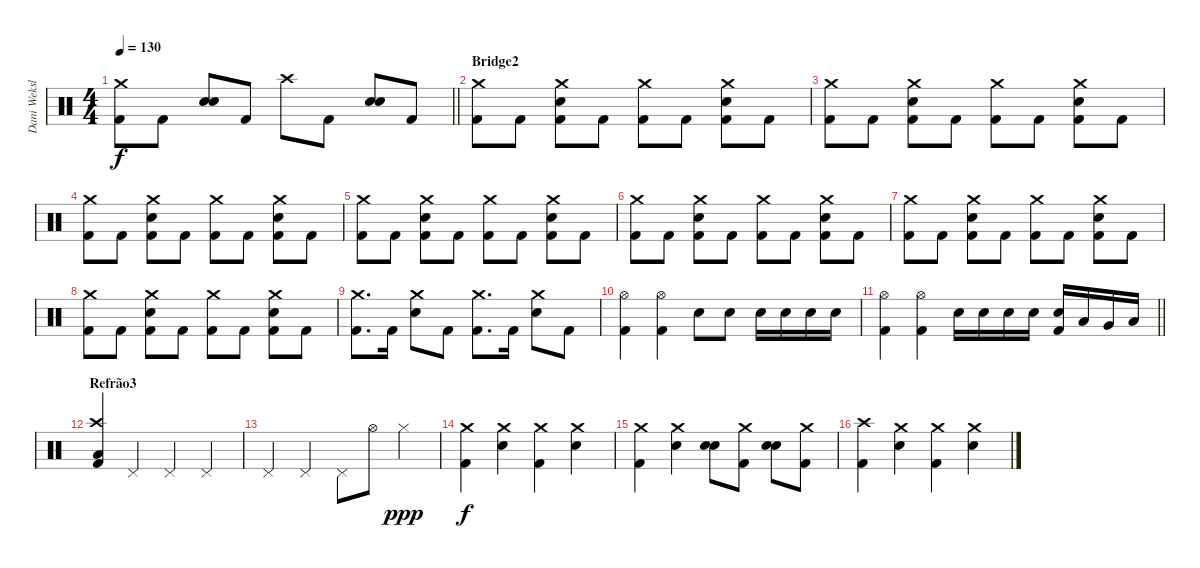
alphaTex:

\track ("Dani Weksler(Bateria)" "Dani Weksl") {instrument percussion}
\staff {score}
\articulation defaults
\ts (4 4)
\tempo 130
\clef neutral
\barLineRight lightlight
\ks c
("Crash medium (hit)" "Kick (hit) 2").8{dy f} "Kick (hit) 2".8 ("Electric Snare (hit)" "Electric Snare (hit)").8 "Kick (hit) 2".8 "Crash high (hit)".8 "Kick (hit) 2".8 ("Electric Snare (hit)" "Electric Snare (hit)").8 "Kick (hit) 2".8 |
\section ("" "Bridge2")
("Crash medium (hit)" "Kick (hit) 2").8 "Kick (hit) 2".8 ("Crash medium (hit)" "Electric Snare (hit)" "Kick (hit) 2").8 "Kick (hit) 2".8 ("Crash medium (hit)" "Kick (hit) 2").8 "Kick (hit) 2".8 ("Crash medium (hit)" "Electric Snare (hit)" "Kick (hit) 2").8 "Kick (hit) 2".8 |
("Crash medium (hit)" "Kick (hit) 2").8 "Kick (hit) 2".8 ("Crash medium (hit)" "Electric Snare (hit)" "Kick (hit) 2").8 "Kick (hit) 2".8 ("Crash medium (hit)" "Kick (hit) 2").8 "Kick (hit) 2".8 ("Crash medium (hit)" "Electric Snare (hit)" "Kick (hit) 2").8 "Kick (hit) 2".8 |
("Crash medium (hit)" "Kick (hit) 2").8 "Kick (hit) 2".8 ("Crash medium (hit)" "Electric Snare (hit)" "Kick (hit) 2").8 "Kick (hit) 2".8 ("Crash medium (hit)" "Kick (hit) 2").8 "Kick (hit) 2".8 ("Crash medium (hit)" "Electric Snare (hit)" "Kick (hit) 2").8 "Kick (hit) 2".8 |
("Crash medium (hit)" "Kick (hit) 2").8 "Kick (hit) 2".8 ("Crash medium (hit)" "Electric Snare (hit)" "Kick (hit) 2").8 "Kick (hit) 2".8 ("Crash medium (hit)" "Kick (hit) 2").8 "Kick (hit) 2".8 ("Crash medium (hit)" "Electric Snare (hit)" "Kick (hit) 2").8 "Kick (hit) 2".8 |
("Crash medium (hit)" "Kick (hit) 2").8 "Kick (hit) 2".8 ("Crash medium (hit)" "Electric Snare (hit)" "Kick (hit) 2").8 "Kick (hit) 2".8 ("Crash medium (hit)" "Kick (hit) 2").8 "Kick (hit) 2".8 ("Crash medium (hit)" "Electric Snare (hit)" "Kick (hit) 2").8 "Kick (hit) 2".8 |
("Crash medium (hit)" "Kick (hit) 2").8 "Kick (hit) 2".8 ("Crash medium (hit)" "Electric Snare (hit)" "Kick (hit) 2").8 "Kick (hit) 2".8 ("Crash medium (hit)" "Kick (hit) 2").8 "Kick (hit) 2".8 ("Crash medium (hit)" "Electric Snare (hit)" "Kick (hit) 2").8 "Kick (hit) 2".8 |
("Crash medium (hit)" "Kick (hit) 2").8 "Kick (hit) 2".8 ("Crash medium (hit)" "Electric Snare (hit)" "Kick (hit) 2").8 "Kick (hit) 2".8 ("Crash medium (hit)" "Kick (hit) 2").8 "Kick (hit) 2".8 ("Crash medium (hit)" "Electric Snare (hit)" "Kick (hit) 2").8 "Kick (hit) 2".8 |
("Crash medium (hit)" "Kick (hit) 2").8{d} "Kick (hit) 2".16 ("Crash medium (hit)" "Electric Snare (hit)").8 "Kick (hit) 2".8 ("Crash medium (hit)" "Kick (hit) 2").8{d} "Kick (hit) 2".16 ("Crash medium (hit)" "Electric Snare (hit)").8 "Kick (hit) 2".8 |
("Hi-Hat (open)" "Kick (hit) 2").4 ("Hi-Hat (open)" "Kick (hit) 2").4 "Electric Snare (hit)".8 "Electric Snare (hit)".8 "Electric Snare (hit)".16 "Electric Snare (hit)".16 "Electric Snare (hit)".16 "Electric Snare (hit)".16 |
\barLineRight lightlight
("Hi-Hat (open)" "Kick (hit) 2").4 ("Hi-Hat (open)" "Kick (hit) 2").4 "Electric Snare (hit)".16 "Electric Snare (hit)".16 "Electric Snare (hit)".16 "Electric Snare (hit)".16 ("Electric Snare (hit)" "Kick (hit) 2").16 "Low Tom (hit)".16 "Very Low Tom (hit)".16 "Low Floor Tom (hit)".16 |
\section ("" "Refrão3")
("Crash high (hit)" "Low Floor Tom (hit)" "Kick (hit) 2").4 "Pedal Hi-Hat (hit)".4 "Pedal Hi-Hat (hit)".4 "Pedal Hi-Hat (hit)".4 |
"Pedal Hi-Hat (hit)".4 "Pedal Hi-Hat (hit)".4 "Pedal Hi-Hat (hit)".8 "Hi-Hat (open)".8 "Hi-Hat (closed)".4{dy ppp} |
("Crash medium (hit)" "Kick (hit) 2").4{dy f} ("Crash medium (hit)" "Electric Snare (hit)").4 ("Crash medium (hit)" "Kick (hit) 2").4 ("Crash medium (hit)" "Electric Snare (hit)").4 |
("Crash medium (hit)" "Kick (hit) 2").4 ("Crash medium (hit)" "Electric Snare (hit)").4 ("Electric Snare (hit)" "Electric Snare (hit)").8 ("Crash medium (hit)" "Kick (hit) 2").8 ("Electric Snare (hit)" "Electric Snare (hit)").8 ("Crash medium (hit)" "Kick (hit) 2").8 |
("Crash high (hit)" "Kick (hit) 2").4 ("Crash medium (hit)" "Electric Snare (hit)").4 ("Crash medium (hit)" "Kick (hit) 2").4 ("Crash medium (hit)" "Electric Snare (hit)").4
